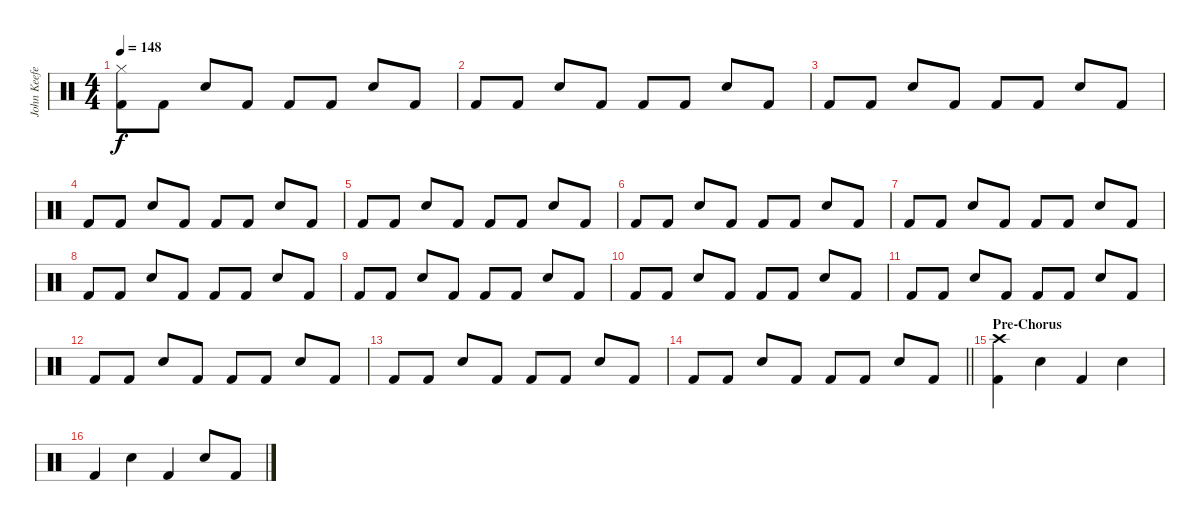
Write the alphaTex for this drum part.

\track ("John Keefe (Percussion)" "John Keefe") {instrument percussion}
\staff {score}
\articulation defaults
\ts (4 4)
\tempo 148
\clef neutral
\ks c
("Hi-Hat (closed)" "Kick (hit) 2").8{dy f} "Kick (hit) 2".8 "Snare (hit) 2".8 "Kick (hit) 2".8 "Kick (hit) 2".8 "Kick (hit) 2".8 "Snare (hit) 2".8 "Kick (hit) 2".8 |
"Kick (hit) 2".8 "Kick (hit) 2".8 "Snare (hit) 2".8 "Kick (hit) 2".8 "Kick (hit) 2".8 "Kick (hit) 2".8 "Snare (hit) 2".8 "Kick (hit) 2".8 |
"Kick (hit) 2".8 "Kick (hit) 2".8 "Snare (hit) 2".8 "Kick (hit) 2".8 "Kick (hit) 2".8 "Kick (hit) 2".8 "Snare (hit) 2".8 "Kick (hit) 2".8 |
"Kick (hit) 2".8 "Kick (hit) 2".8 "Snare (hit) 2".8 "Kick (hit) 2".8 "Kick (hit) 2".8 "Kick (hit) 2".8 "Snare (hit) 2".8 "Kick (hit) 2".8 |
"Kick (hit) 2".8 "Kick (hit) 2".8 "Snare (hit) 2".8 "Kick (hit) 2".8 "Kick (hit) 2".8 "Kick (hit) 2".8 "Snare (hit) 2".8 "Kick (hit) 2".8 |
"Kick (hit) 2".8 "Kick (hit) 2".8 "Snare (hit) 2".8 "Kick (hit) 2".8 "Kick (hit) 2".8 "Kick (hit) 2".8 "Snare (hit) 2".8 "Kick (hit) 2".8 |
"Kick (hit) 2".8 "Kick (hit) 2".8 "Snare (hit) 2".8 "Kick (hit) 2".8 "Kick (hit) 2".8 "Kick (hit) 2".8 "Snare (hit) 2".8 "Kick (hit) 2".8 |
"Kick (hit) 2".8 "Kick (hit) 2".8 "Snare (hit) 2".8 "Kick (hit) 2".8 "Kick (hit) 2".8 "Kick (hit) 2".8 "Snare (hit) 2".8 "Kick (hit) 2".8 |
"Kick (hit) 2".8 "Kick (hit) 2".8 "Snare (hit) 2".8 "Kick (hit) 2".8 "Kick (hit) 2".8 "Kick (hit) 2".8 "Snare (hit) 2".8 "Kick (hit) 2".8 |
"Kick (hit) 2".8 "Kick (hit) 2".8 "Snare (hit) 2".8 "Kick (hit) 2".8 "Kick (hit) 2".8 "Kick (hit) 2".8 "Snare (hit) 2".8 "Kick (hit) 2".8 |
"Kick (hit) 2".8 "Kick (hit) 2".8 "Snare (hit) 2".8 "Kick (hit) 2".8 "Kick (hit) 2".8 "Kick (hit) 2".8 "Snare (hit) 2".8 "Kick (hit) 2".8 |
"Kick (hit) 2".8 "Kick (hit) 2".8 "Snare (hit) 2".8 "Kick (hit) 2".8 "Kick (hit) 2".8 "Kick (hit) 2".8 "Snare (hit) 2".8 "Kick (hit) 2".8 |
"Kick (hit) 2".8 "Kick (hit) 2".8 "Snare (hit) 2".8 "Kick (hit) 2".8 "Kick (hit) 2".8 "Kick (hit) 2".8 "Snare (hit) 2".8 "Kick (hit) 2".8 |
\barLineRight lightlight "Kick (hit) 2".8 "Kick (hit) 2".8 "Snare (hit) 2".8 "Kick (hit) 2".8 "Kick (hit) 2".8 "Kick (hit) 2".8 "Snare (hit) 2".8 "Kick (hit) 2".8
|
\section ("" "Pre-Chorus")
("Crash high (hit)" "Kick (hit) 2").4 "Snare (hit) 2".4 "Kick (hit) 2".4 "Snare (hit) 2".4 |
"Kick (hit) 2".4 "Snare (hit) 2".4 "Kick (hit) 2".4 "Snare (hit) 2".8 "Kick (hit) 2".8
